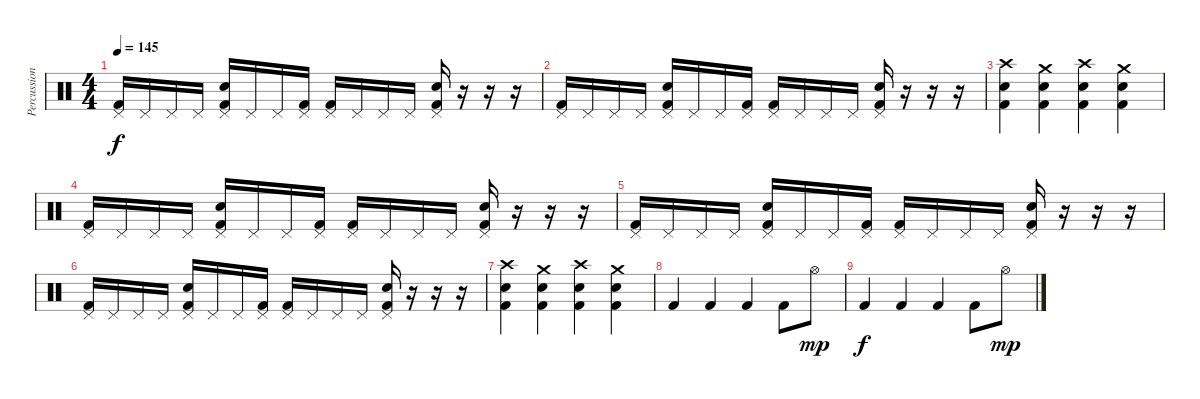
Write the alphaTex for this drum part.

\track ("Percussion" "Percussion") {instrument percussion}
\staff {score}
\articulation defaults
\ts (4 4)
\tempo 145
\clef neutral
\ks c
("Kick (hit) 2" "Pedal Hi-Hat (hit)").16{dy f} "Pedal Hi-Hat (hit)".16 "Pedal Hi-Hat (hit)".16 "Pedal Hi-Hat (hit)".16 ("Electric Snare (hit)" "Kick (hit) 2" "Pedal Hi-Hat (hit)").16 "Pedal Hi-Hat (hit)".16 "Pedal Hi-Hat (hit)".16 ("Kick (hit) 2" "Pedal Hi-Hat (hit)").16 ("Kick (hit) 2" "Pedal Hi-Hat (hit)").16 "Pedal Hi-Hat (hit)".16 "Pedal Hi-Hat (hit)".16 "Pedal Hi-Hat (hit)".16 ("Electric Snare (hit)" "Kick (hit) 2" "Pedal Hi-Hat (hit)").16 r.16 r.16 r.16 |
("Kick (hit) 2" "Pedal Hi-Hat (hit)").16 "Pedal Hi-Hat (hit)".16 "Pedal Hi-Hat (hit)".16 "Pedal Hi-Hat (hit)".16 ("Electric Snare (hit)" "Kick (hit) 2" "Pedal Hi-Hat (hit)").16 "Pedal Hi-Hat (hit)".16 "Pedal Hi-Hat (hit)".16 ("Kick (hit) 2" "Pedal Hi-Hat (hit)").16 ("Kick (hit) 2" "Pedal Hi-Hat (hit)").16 "Pedal Hi-Hat (hit)".16 "Pedal Hi-Hat (hit)".16 "Pedal Hi-Hat (hit)".16 ("Electric Snare (hit)" "Kick (hit) 2" "Pedal Hi-Hat (hit)").16 r.16 r.16 r.16 |
("Electric Snare (hit)" "Crash high (hit)" "Kick (hit) 2").4 ("Electric Snare (hit)" "Crash medium (hit)" "Kick (hit) 2").4 ("Electric Snare (hit)" "Crash high (hit)" "Kick (hit) 2").4 ("Electric Snare (hit)" "Crash medium (hit)" "Kick (hit) 2").4 |
("Kick (hit) 2" "Pedal Hi-Hat (hit)").16 "Pedal Hi-Hat (hit)".16 "Pedal Hi-Hat (hit)".16 "Pedal Hi-Hat (hit)".16 ("Electric Snare (hit)" "Kick (hit) 2" "Pedal Hi-Hat (hit)").16 "Pedal Hi-Hat (hit)".16 "Pedal Hi-Hat (hit)".16 ("Kick (hit) 2" "Pedal Hi-Hat (hit)").16 ("Kick (hit) 2" "Pedal Hi-Hat (hit)").16 "Pedal Hi-Hat (hit)".16 "Pedal Hi-Hat (hit)".16 "Pedal Hi-Hat (hit)".16 ("Electric Snare (hit)" "Kick (hit) 2" "Pedal Hi-Hat (hit)").16 r.16 r.16 r.16 |
("Kick (hit) 2" "Pedal Hi-Hat (hit)").16 "Pedal Hi-Hat (hit)".16 "Pedal Hi-Hat (hit)".16 "Pedal Hi-Hat (hit)".16 ("Electric Snare (hit)" "Kick (hit) 2" "Pedal Hi-Hat (hit)").16 "Pedal Hi-Hat (hit)".16 "Pedal Hi-Hat (hit)".16 ("Kick (hit) 2" "Pedal Hi-Hat (hit)").16 ("Kick (hit) 2" "Pedal Hi-Hat (hit)").16 "Pedal Hi-Hat (hit)".16 "Pedal Hi-Hat (hit)".16 "Pedal Hi-Hat (hit)".16 ("Electric Snare (hit)" "Kick (hit) 2" "Pedal Hi-Hat (hit)").16 r.16 r.16 r.16 |
("Kick (hit) 2" "Pedal Hi-Hat (hit)").16 "Pedal Hi-Hat (hit)".16 "Pedal Hi-Hat (hit)".16 "Pedal Hi-Hat (hit)".16 ("Electric Snare (hit)" "Kick (hit) 2" "Pedal Hi-Hat (hit)").16 "Pedal Hi-Hat (hit)".16 "Pedal Hi-Hat (hit)".16 ("Kick (hit) 2" "Pedal Hi-Hat (hit)").16 ("Kick (hit) 2" "Pedal Hi-Hat (hit)").16 "Pedal Hi-Hat (hit)".16 "Pedal Hi-Hat (hit)".16 "Pedal Hi-Hat (hit)".16 ("Electric Snare (hit)" "Kick (hit) 2" "Pedal Hi-Hat (hit)").16 r.16 r.16 r.16 |
("Electric Snare (hit)" "Crash high (hit)" "Kick (hit) 2").4 ("Electric Snare (hit)" "Crash medium (hit)" "Kick (hit) 2").4 ("Electric Snare (hit)" "Crash high (hit)" "Kick (hit) 2").4 ("Electric Snare (hit)" "Crash medium (hit)" "Kick (hit) 2").4 |
"Kick (hit) 2".4 "Kick (hit) 2".4 "Kick (hit) 2".4 "Kick (hit) 2".8 "Hi-Hat (open)".8{dy mp} |
"Kick (hit) 2".4{dy f} "Kick (hit) 2".4 "Kick (hit) 2".4 "Kick (hit) 2".8 "Hi-Hat (open)".8{dy mp}
